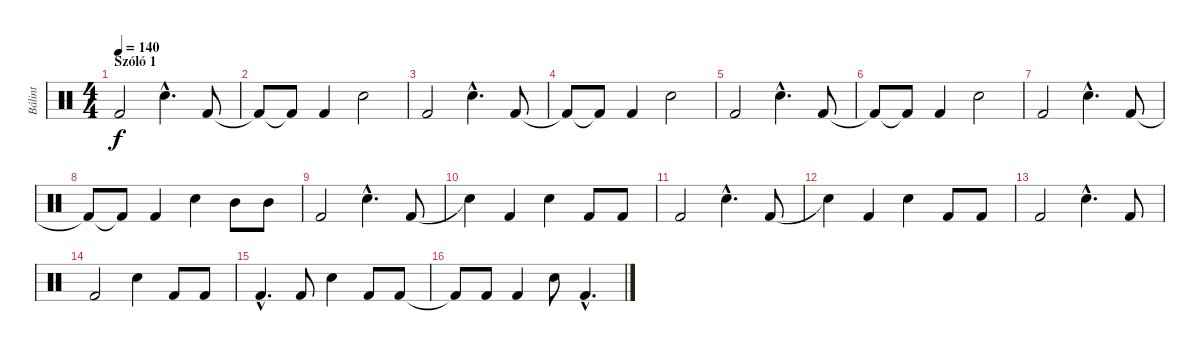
\track ("Bálint" "Bálint") {instrument percussion}
\staff {score}
\articulation defaults
\ts (4 4)
\section ("" "Szóló 1")
\tempo 140
\clef neutral
\ks c "Kick (hit) 2".2{dy f} "Snare (hit) 2"{hac}.4{d} "Kick (hit) 2".8
|
"Kick (hit) 2"{t}.8 "Kick (hit) 2"{t}.8 "Kick (hit) 2".4 "Snare (hit) 2".2 |
"Kick (hit) 2".2 "Snare (hit) 2"{hac}.4{d} "Kick (hit) 2".8 |
"Kick (hit) 2"{t}.8 "Kick (hit) 2"{t}.8 "Kick (hit) 2".4 "Snare (hit) 2".2 |
"Kick (hit) 2".2 "Snare (hit) 2"{hac}.4{d} "Kick (hit) 2".8 |
"Kick (hit) 2"{t}.8 "Kick (hit) 2"{t}.8 "Kick (hit) 2".4 "Snare (hit) 2".2 |
"Kick (hit) 2".2 "Snare (hit) 2"{hac}.4{d} "Kick (hit) 2".8 |
"Kick (hit) 2"{t}.8 "Kick (hit) 2"{t}.8 "Kick (hit) 2".4 "Snare (hit) 2".4 "Mid Tom (hit)".8 "Mid Tom (hit)".8 |
"Kick (hit) 2".2 "Snare (hit) 2"{hac}.4{d} "Kick (hit) 2".8 |
"Snare (hit)"{t}.4 "Kick (hit) 2".4 "Snare (hit) 2".4 "Kick (hit) 2".8 "Kick (hit) 2".8 |
"Kick (hit) 2".2 "Snare (hit) 2"{hac}.4{d} "Kick (hit) 2".8 |
"Snare (hit)"{t}.4 "Kick (hit) 2".4 "Snare (hit) 2".4 "Kick (hit) 2".8 "Kick (hit) 2".8 |
"Kick (hit) 2".2 "Snare (hit) 2"{hac}.4{d} "Kick (hit) 2".8 |
"Kick (hit) 2".2 "Snare (hit) 2".4 "Kick (hit) 2".8 "Kick (hit) 2".8 |
"Kick (hit) 2"{hac}.4{d} "Kick (hit) 2".8 "Snare (hit) 2".4 "Kick (hit) 2".8 "Kick (hit) 2".8 |
"Kick (hit) 2"{t}.8 "Kick (hit) 2".8 "Kick (hit) 2".4 "Snare (hit) 2".8 "Kick (hit) 2"{hac}.4{d}
